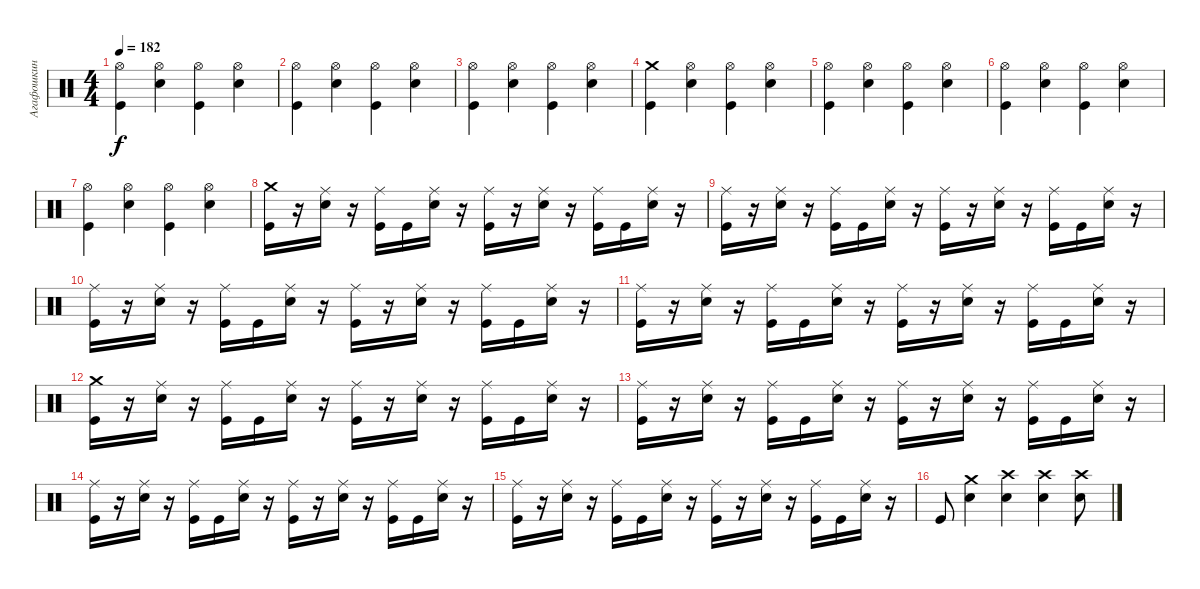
\track ("Агафошкин" "Агафошкин") {instrument percussion}
\staff {score}
\articulation defaults
\ts (4 4)
\tempo 182
\clef neutral
\ks c
("Hi-Hat (open)" "Kick (hit)").4{dy f} ("Hi-Hat (open)" "Snare (hit) 2").4 ("Hi-Hat (open)" "Kick (hit)").4 ("Hi-Hat (open)" "Snare (hit) 2").4 |
("Hi-Hat (open)" "Kick (hit)").4 ("Hi-Hat (open)" "Snare (hit) 2").4 ("Hi-Hat (open)" "Kick (hit)").4 ("Hi-Hat (open)" "Snare (hit) 2").4 |
("Hi-Hat (open)" "Kick (hit)").4 ("Hi-Hat (open)" "Snare (hit) 2").4 ("Hi-Hat (open)" "Kick (hit)").4 ("Hi-Hat (open)" "Snare (hit) 2").4 |
("Crash medium (hit)" "Kick (hit)").4 ("Hi-Hat (open)" "Snare (hit) 2").4 ("Hi-Hat (open)" "Kick (hit)").4 ("Hi-Hat (open)" "Snare (hit) 2").4 |
("Hi-Hat (open)" "Kick (hit)").4 ("Hi-Hat (open)" "Snare (hit) 2").4 ("Hi-Hat (open)" "Kick (hit)").4 ("Hi-Hat (open)" "Snare (hit) 2").4 |
("Hi-Hat (open)" "Kick (hit)").4 ("Hi-Hat (open)" "Snare (hit) 2").4 ("Hi-Hat (open)" "Kick (hit)").4 ("Hi-Hat (open)" "Snare (hit) 2").4 |
("Hi-Hat (open)" "Kick (hit)").4 ("Hi-Hat (open)" "Snare (hit) 2").4 ("Hi-Hat (open)" "Kick (hit)").4 ("Hi-Hat (open)" "Snare (hit) 2").4 |
("Crash medium (hit)" "Kick (hit)").16 r.16 ("Ride (middle)" "Snare (hit) 2").16 r.16 ("Ride (middle)" "Kick (hit)").16 "Kick (hit)".16 ("Ride (middle)" "Snare (hit) 2").16 r.16 ("Ride (middle)" "Kick (hit)").16 r.16 ("Ride (middle)" "Snare (hit) 2").16 r.16 ("Ride (middle)" "Kick (hit)").16 "Kick (hit)".16 ("Ride (middle)" "Snare (hit) 2").16 r.16 |
("Ride (middle)" "Kick (hit)").16 r.16 ("Ride (middle)" "Snare (hit) 2").16 r.16 ("Ride (middle)" "Kick (hit)").16 "Kick (hit)".16 ("Ride (middle)" "Snare (hit) 2").16 r.16 ("Ride (middle)" "Kick (hit)").16 r.16 ("Ride (middle)" "Snare (hit) 2").16 r.16 ("Ride (middle)" "Kick (hit)").16 "Kick (hit)".16 ("Ride (middle)" "Snare (hit) 2").16 r.16 |
("Ride (middle)" "Kick (hit)").16 r.16 ("Ride (middle)" "Snare (hit) 2").16 r.16 ("Ride (middle)" "Kick (hit)").16 "Kick (hit)".16 ("Ride (middle)" "Snare (hit) 2").16 r.16 ("Ride (middle)" "Kick (hit)").16 r.16 ("Ride (middle)" "Snare (hit) 2").16 r.16 ("Ride (middle)" "Kick (hit)").16 "Kick (hit)".16 ("Ride (middle)" "Snare (hit) 2").16 r.16 |
("Ride (middle)" "Kick (hit)").16 r.16 ("Ride (middle)" "Snare (hit) 2").16 r.16 ("Ride (middle)" "Kick (hit)").16 "Kick (hit)".16 ("Ride (middle)" "Snare (hit) 2").16 r.16 ("Ride (middle)" "Kick (hit)").16 r.16 ("Ride (middle)" "Snare (hit) 2").16 r.16 ("Ride (middle)" "Kick (hit)").16 "Kick (hit)".16 ("Ride (middle)" "Snare (hit) 2").16 r.16 |
("Crash medium (hit)" "Kick (hit)").16 r.16 ("Ride (middle)" "Snare (hit) 2").16 r.16 ("Ride (middle)" "Kick (hit)").16 "Kick (hit)".16 ("Ride (middle)" "Snare (hit) 2").16 r.16 ("Ride (middle)" "Kick (hit)").16 r.16 ("Ride (middle)" "Snare (hit) 2").16 r.16 ("Ride (middle)" "Kick (hit)").16 "Kick (hit)".16 ("Ride (middle)" "Snare (hit) 2").16 r.16 |
("Ride (middle)" "Kick (hit)").16 r.16 ("Ride (middle)" "Snare (hit) 2").16 r.16 ("Ride (middle)" "Kick (hit)").16 "Kick (hit)".16 ("Ride (middle)" "Snare (hit) 2").16 r.16 ("Ride (middle)" "Kick (hit)").16 r.16 ("Ride (middle)" "Snare (hit) 2").16 r.16 ("Ride (middle)" "Kick (hit)").16 "Kick (hit)".16 ("Ride (middle)" "Snare (hit) 2").16 r.16 |
("Ride (middle)" "Kick (hit)").16 r.16 ("Ride (middle)" "Snare (hit) 2").16 r.16 ("Ride (middle)" "Kick (hit)").16 "Kick (hit)".16 ("Ride (middle)" "Snare (hit) 2").16 r.16 ("Ride (middle)" "Kick (hit)").16 r.16 ("Ride (middle)" "Snare (hit) 2").16 r.16 ("Ride (middle)" "Kick (hit)").16 "Kick (hit)".16 ("Ride (middle)" "Snare (hit) 2").16 r.16 |
("Ride (middle)" "Kick (hit)").16 r.16 ("Ride (middle)" "Snare (hit) 2").16 r.16 ("Ride (middle)" "Kick (hit)").16 "Kick (hit)".16 ("Ride (middle)" "Snare (hit) 2").16 r.16 ("Ride (middle)" "Kick (hit)").16 r.16 ("Ride (middle)" "Snare (hit) 2").16 r.16 ("Ride (middle)" "Kick (hit)").16 "Kick (hit)".16 ("Ride (middle)" "Snare (hit) 2").16 r.16 |
"Kick (hit)".8 ("Crash medium (hit)" "Snare (hit) 2").4 ("Crash high (hit)" "Snare (hit) 2").4 ("Crash high (hit)" "Snare (hit) 2").4 ("Crash high (hit)" "Snare (hit) 2").8
